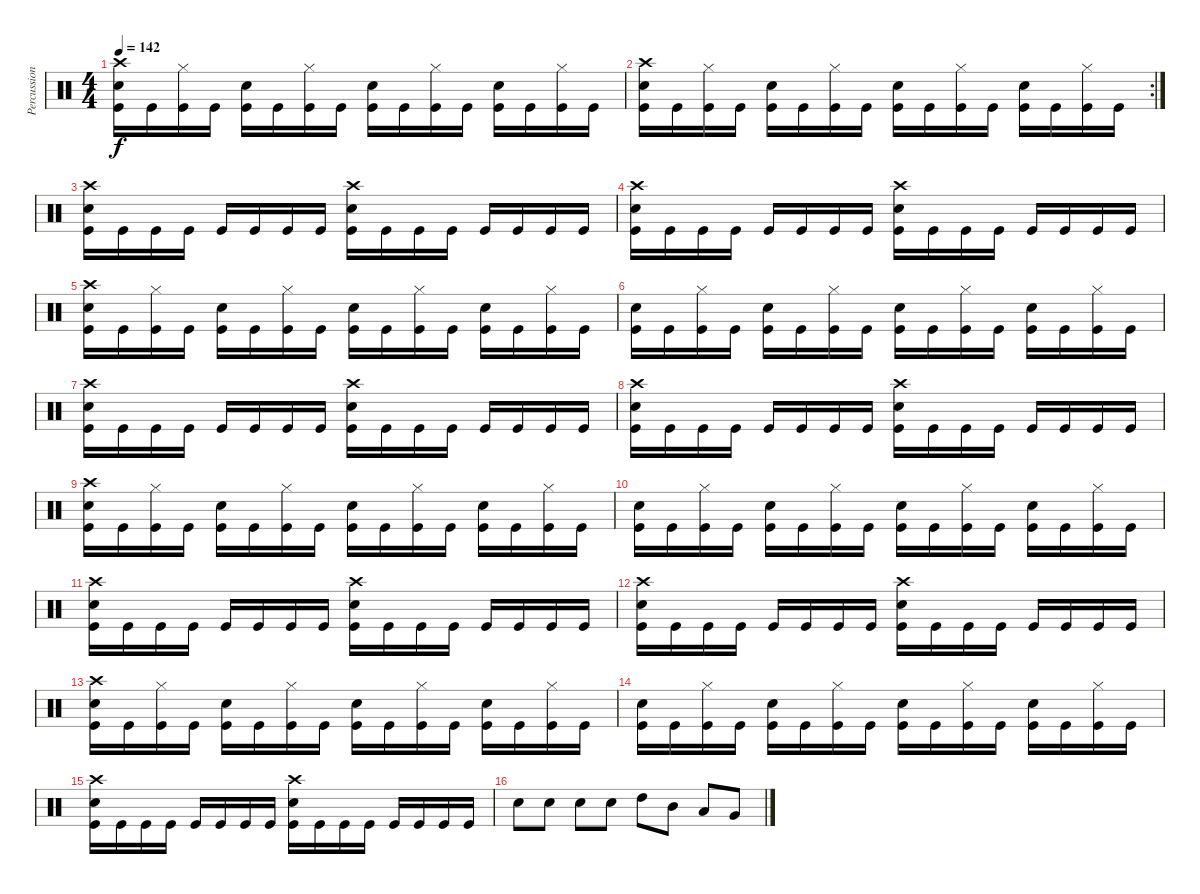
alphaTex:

\track ("Percussion" "Percussion") {instrument percussion}
\staff {score}
\articulation defaults
\ts (4 4)
\tempo 142
\clef neutral
\ks c
("Crash high (hit)" "Snare (hit) 2" "Kick (hit)").16{dy f} "Kick (hit)".16 ("Hi-Hat (closed)" "Kick (hit)").16 "Kick (hit)".16 ("Snare (hit) 2" "Kick (hit)").16 "Kick (hit)".16 ("Hi-Hat (closed)" "Kick (hit)").16 "Kick (hit)".16 ("Snare (hit) 2" "Kick (hit)").16 "Kick (hit)".16 ("Hi-Hat (closed)" "Kick (hit)").16 "Kick (hit)".16 ("Snare (hit) 2" "Kick (hit)").16 "Kick (hit)".16 ("Hi-Hat (closed)" "Kick (hit)").16 "Kick (hit)".16 |
\rc 2
("Crash high (hit)" "Snare (hit) 2" "Kick (hit)").16 "Kick (hit)".16 ("Hi-Hat (closed)" "Kick (hit)").16 "Kick (hit)".16 ("Snare (hit) 2" "Kick (hit)").16 "Kick (hit)".16 ("Hi-Hat (closed)" "Kick (hit)").16 "Kick (hit)".16 ("Snare (hit) 2" "Kick (hit)").16 "Kick (hit)".16 ("Hi-Hat (closed)" "Kick (hit)").16 "Kick (hit)".16 ("Snare (hit) 2" "Kick (hit)").16 "Kick (hit)".16 ("Hi-Hat (closed)" "Kick (hit)").16 "Kick (hit)".16 |
("Crash high (hit)" "Snare (hit) 2" "Kick (hit)").16 "Kick (hit)".16 "Kick (hit)".16 "Kick (hit)".16 "Kick (hit)".16 "Kick (hit)".16 "Kick (hit)".16 "Kick (hit)".16 ("Crash high (hit)" "Snare (hit) 2" "Kick (hit)").16 "Kick (hit)".16 "Kick (hit)".16 "Kick (hit)".16 "Kick (hit)".16 "Kick (hit)".16 "Kick (hit)".16 "Kick (hit)".16 |
("Crash high (hit)" "Snare (hit) 2" "Kick (hit)").16 "Kick (hit)".16 "Kick (hit)".16 "Kick (hit)".16 "Kick (hit)".16 "Kick (hit)".16 "Kick (hit)".16 "Kick (hit)".16 ("Crash high (hit)" "Snare (hit) 2" "Kick (hit)").16 "Kick (hit)".16 "Kick (hit)".16 "Kick (hit)".16 "Kick (hit)".16 "Kick (hit)".16 "Kick (hit)".16 "Kick (hit)".16 |
("Crash high (hit)" "Snare (hit) 2" "Kick (hit)").16 "Kick (hit)".16 ("Hi-Hat (closed)" "Kick (hit)").16 "Kick (hit)".16 ("Snare (hit) 2" "Kick (hit)").16 "Kick (hit)".16 ("Hi-Hat (closed)" "Kick (hit)").16 "Kick (hit)".16 ("Snare (hit) 2" "Kick (hit)").16 "Kick (hit)".16 ("Hi-Hat (closed)" "Kick (hit)").16 "Kick (hit)".16 ("Snare (hit) 2" "Kick (hit)").16 "Kick (hit)".16 ("Hi-Hat (closed)" "Kick (hit)").16 "Kick (hit)".16 |
("Snare (hit) 2" "Kick (hit)").16 "Kick (hit)".16 ("Hi-Hat (closed)" "Kick (hit)").16 "Kick (hit)".16 ("Snare (hit) 2" "Kick (hit)").16 "Kick (hit)".16 ("Hi-Hat (closed)" "Kick (hit)").16 "Kick (hit)".16 ("Snare (hit) 2" "Kick (hit)").16 "Kick (hit)".16 ("Hi-Hat (closed)" "Kick (hit)").16 "Kick (hit)".16 ("Snare (hit) 2" "Kick (hit)").16 "Kick (hit)".16 ("Hi-Hat (closed)" "Kick (hit)").16 "Kick (hit)".16 |
("Crash high (hit)" "Snare (hit) 2" "Kick (hit)").16 "Kick (hit)".16 "Kick (hit)".16 "Kick (hit)".16 "Kick (hit)".16 "Kick (hit)".16 "Kick (hit)".16 "Kick (hit)".16 ("Crash high (hit)" "Snare (hit) 2" "Kick (hit)").16 "Kick (hit)".16 "Kick (hit)".16 "Kick (hit)".16 "Kick (hit)".16 "Kick (hit)".16 "Kick (hit)".16 "Kick (hit)".16 |
("Crash high (hit)" "Snare (hit) 2" "Kick (hit)").16 "Kick (hit)".16 "Kick (hit)".16 "Kick (hit)".16 "Kick (hit)".16 "Kick (hit)".16 "Kick (hit)".16 "Kick (hit)".16 ("Crash high (hit)" "Snare (hit) 2" "Kick (hit)").16 "Kick (hit)".16 "Kick (hit)".16 "Kick (hit)".16 "Kick (hit)".16 "Kick (hit)".16 "Kick (hit)".16 "Kick (hit)".16 |
("Crash high (hit)" "Snare (hit) 2" "Kick (hit)").16 "Kick (hit)".16 ("Hi-Hat (closed)" "Kick (hit)").16 "Kick (hit)".16 ("Snare (hit) 2" "Kick (hit)").16 "Kick (hit)".16 ("Hi-Hat (closed)" "Kick (hit)").16 "Kick (hit)".16 ("Snare (hit) 2" "Kick (hit)").16 "Kick (hit)".16 ("Hi-Hat (closed)" "Kick (hit)").16 "Kick (hit)".16 ("Snare (hit) 2" "Kick (hit)").16 "Kick (hit)".16 ("Hi-Hat (closed)" "Kick (hit)").16 "Kick (hit)".16 |
("Snare (hit) 2" "Kick (hit)").16 "Kick (hit)".16 ("Hi-Hat (closed)" "Kick (hit)").16 "Kick (hit)".16 ("Snare (hit) 2" "Kick (hit)").16 "Kick (hit)".16 ("Hi-Hat (closed)" "Kick (hit)").16 "Kick (hit)".16 ("Snare (hit) 2" "Kick (hit)").16 "Kick (hit)".16 ("Hi-Hat (closed)" "Kick (hit)").16 "Kick (hit)".16 ("Snare (hit) 2" "Kick (hit)").16 "Kick (hit)".16 ("Hi-Hat (closed)" "Kick (hit)").16 "Kick (hit)".16 |
("Crash high (hit)" "Snare (hit) 2" "Kick (hit)").16 "Kick (hit)".16 "Kick (hit)".16 "Kick (hit)".16 "Kick (hit)".16 "Kick (hit)".16 "Kick (hit)".16 "Kick (hit)".16 ("Crash high (hit)" "Snare (hit) 2" "Kick (hit)").16 "Kick (hit)".16 "Kick (hit)".16 "Kick (hit)".16 "Kick (hit)".16 "Kick (hit)".16 "Kick (hit)".16 "Kick (hit)".16 |
("Crash high (hit)" "Snare (hit) 2" "Kick (hit)").16 "Kick (hit)".16 "Kick (hit)".16 "Kick (hit)".16 "Kick (hit)".16 "Kick (hit)".16 "Kick (hit)".16 "Kick (hit)".16 ("Crash high (hit)" "Snare (hit) 2" "Kick (hit)").16 "Kick (hit)".16 "Kick (hit)".16 "Kick (hit)".16 "Kick (hit)".16 "Kick (hit)".16 "Kick (hit)".16 "Kick (hit)".16 |
("Crash high (hit)" "Snare (hit) 2" "Kick (hit)").16 "Kick (hit)".16 ("Hi-Hat (closed)" "Kick (hit)").16 "Kick (hit)".16 ("Snare (hit) 2" "Kick (hit)").16 "Kick (hit)".16 ("Hi-Hat (closed)" "Kick (hit)").16 "Kick (hit)".16 ("Snare (hit) 2" "Kick (hit)").16 "Kick (hit)".16 ("Hi-Hat (closed)" "Kick (hit)").16 "Kick (hit)".16 ("Snare (hit) 2" "Kick (hit)").16 "Kick (hit)".16 ("Hi-Hat (closed)" "Kick (hit)").16 "Kick (hit)".16 |
("Snare (hit) 2" "Kick (hit)").16 "Kick (hit)".16 ("Hi-Hat (closed)" "Kick (hit)").16 "Kick (hit)".16 ("Snare (hit) 2" "Kick (hit)").16 "Kick (hit)".16 ("Hi-Hat (closed)" "Kick (hit)").16 "Kick (hit)".16 ("Snare (hit) 2" "Kick (hit)").16 "Kick (hit)".16 ("Hi-Hat (closed)" "Kick (hit)").16 "Kick (hit)".16 ("Snare (hit) 2" "Kick (hit)").16 "Kick (hit)".16 ("Hi-Hat (closed)" "Kick (hit)").16 "Kick (hit)".16 |
("Crash high (hit)" "Snare (hit) 2" "Kick (hit)").16 "Kick (hit)".16 "Kick (hit)".16 "Kick (hit)".16 "Kick (hit)".16 "Kick (hit)".16 "Kick (hit)".16 "Kick (hit)".16 ("Crash high (hit)" "Snare (hit) 2" "Kick (hit)").16 "Kick (hit)".16 "Kick (hit)".16 "Kick (hit)".16 "Kick (hit)".16 "Kick (hit)".16 "Kick (hit)".16 "Kick (hit)".16 |
"Snare (hit) 2".8 "Snare (hit) 2".8 "Snare (hit) 2".8 "Snare (hit) 2".8 "High Tom (hit)".8 "Mid Tom (hit)".8 "Low Tom (hit)".8 "Very Low Tom (hit)".8
